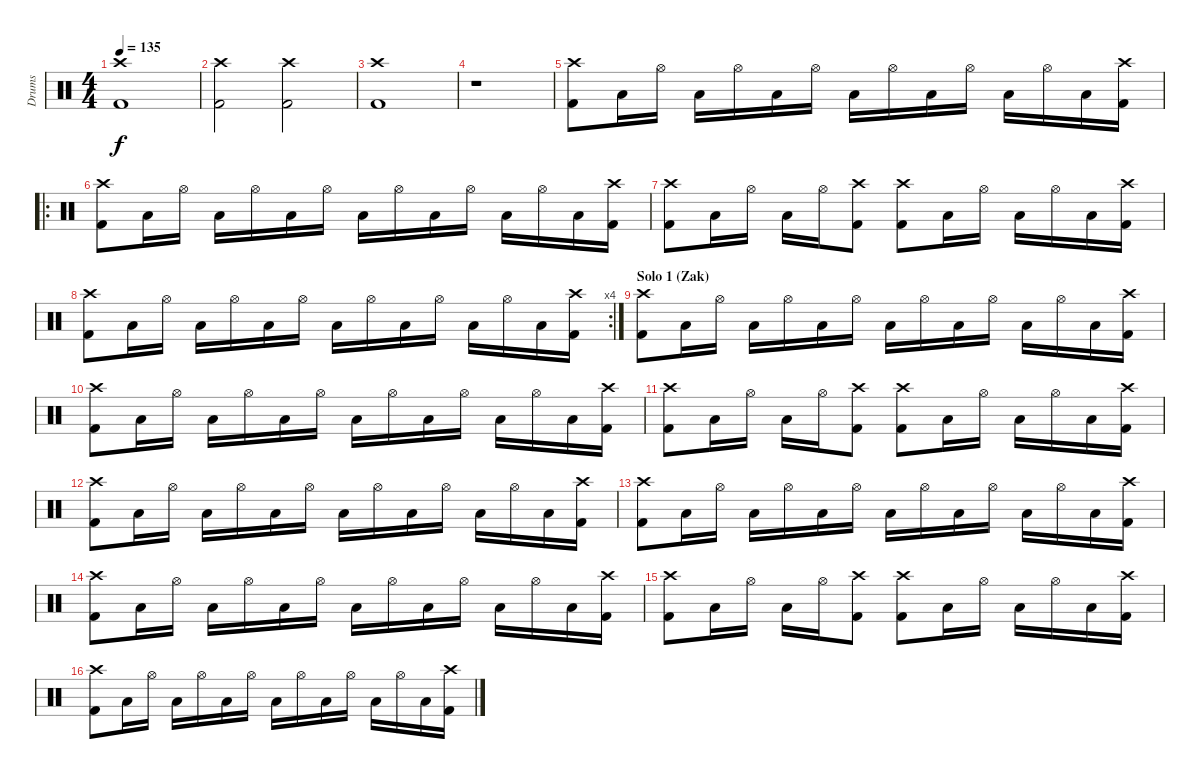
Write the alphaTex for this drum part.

\track ("Drums" "Drums") {instrument percussion}
\staff {score}
\articulation defaults
\ts (4 4)
\tempo 135
\clef neutral
\ks c
("Crash high (hit)" "Kick (hit) 2").1{dy f} |
("Crash high (hit)" "Kick (hit) 2").2 ("Crash high (hit)" "Kick (hit) 2").2 |
("Crash high (hit)" "Kick (hit) 2").1 |
r.1 |
("Crash high (hit)" "Kick (hit) 2").8 "Low Tom (hit)".16 "Hi-Hat (open)".16 "Low Tom (hit)".16 "Hi-Hat (open)".16 "Low Tom (hit)".16 "Hi-Hat (open)".16 "Low Tom (hit)".16 "Hi-Hat (open)".16 "Low Tom (hit)".16 "Hi-Hat (open)".16 "Low Tom (hit)".16 "Hi-Hat (open)".16 "Low Tom (hit)".16 ("Crash high (hit)" "Kick (hit) 2").16 |
\ro
("Crash high (hit)" "Kick (hit) 2").8 "Low Tom (hit)".16 "Hi-Hat (open)".16 "Low Tom (hit)".16 "Hi-Hat (open)".16 "Low Tom (hit)".16 "Hi-Hat (open)".16 "Low Tom (hit)".16 "Hi-Hat (open)".16 "Low Tom (hit)".16 "Hi-Hat (open)".16 "Low Tom (hit)".16 "Hi-Hat (open)".16 "Low Tom (hit)".16 ("Crash high (hit)" "Kick (hit) 2").16 |
("Kick (hit) 2" "Crash high (hit)").8 "Low Tom (hit)".16 "Hi-Hat (open)".16 "Low Tom (hit)".16 "Hi-Hat (open)".16 ("Kick (hit) 2" "Crash high (hit)").8 ("Kick (hit) 2" "Crash high (hit)").8 "Low Tom (hit)".16 "Hi-Hat (open)".16 "Low Tom (hit)".16 "Hi-Hat (open)".16 "Low Tom (hit)".16 ("Crash high (hit)" "Kick (hit) 2").16 |
\rc 4
("Crash high (hit)" "Kick (hit) 2").8 "Low Tom (hit)".16 "Hi-Hat (open)".16 "Low Tom (hit)".16 "Hi-Hat (open)".16 "Low Tom (hit)".16 "Hi-Hat (open)".16 "Low Tom (hit)".16 "Hi-Hat (open)".16 "Low Tom (hit)".16 "Hi-Hat (open)".16 "Low Tom (hit)".16 "Hi-Hat (open)".16 "Low Tom (hit)".16 ("Kick (hit) 2" "Crash high (hit)").16 |
\section ("" "Solo 1 (Zak)")
("Crash high (hit)" "Kick (hit) 2").8 "Low Tom (hit)".16 "Hi-Hat (open)".16 "Low Tom (hit)".16 "Hi-Hat (open)".16 "Low Tom (hit)".16 "Hi-Hat (open)".16 "Low Tom (hit)".16 "Hi-Hat (open)".16 "Low Tom (hit)".16 "Hi-Hat (open)".16 "Low Tom (hit)".16 "Hi-Hat (open)".16 "Low Tom (hit)".16 ("Crash high (hit)" "Kick (hit) 2").16 |
("Crash high (hit)" "Kick (hit) 2").8 "Low Tom (hit)".16 "Hi-Hat (open)".16 "Low Tom (hit)".16 "Hi-Hat (open)".16 "Low Tom (hit)".16 "Hi-Hat (open)".16 "Low Tom (hit)".16 "Hi-Hat (open)".16 "Low Tom (hit)".16 "Hi-Hat (open)".16 "Low Tom (hit)".16 "Hi-Hat (open)".16 "Low Tom (hit)".16 ("Crash high (hit)" "Kick (hit) 2").16 |
("Kick (hit) 2" "Crash high (hit)").8 "Low Tom (hit)".16 "Hi-Hat (open)".16 "Low Tom (hit)".16 "Hi-Hat (open)".16 ("Kick (hit) 2" "Crash high (hit)").8 ("Kick (hit) 2" "Crash high (hit)").8 "Low Tom (hit)".16 "Hi-Hat (open)".16 "Low Tom (hit)".16 "Hi-Hat (open)".16 "Low Tom (hit)".16 ("Crash high (hit)" "Kick (hit) 2").16 |
("Crash high (hit)" "Kick (hit) 2").8 "Low Tom (hit)".16 "Hi-Hat (open)".16 "Low Tom (hit)".16 "Hi-Hat (open)".16 "Low Tom (hit)".16 "Hi-Hat (open)".16 "Low Tom (hit)".16 "Hi-Hat (open)".16 "Low Tom (hit)".16 "Hi-Hat (open)".16 "Low Tom (hit)".16 "Hi-Hat (open)".16 "Low Tom (hit)".16 ("Crash high (hit)" "Kick (hit) 2").16 |
("Crash high (hit)" "Kick (hit) 2").8 "Low Tom (hit)".16 "Hi-Hat (open)".16 "Low Tom (hit)".16 "Hi-Hat (open)".16 "Low Tom (hit)".16 "Hi-Hat (open)".16 "Low Tom (hit)".16 "Hi-Hat (open)".16 "Low Tom (hit)".16 "Hi-Hat (open)".16 "Low Tom (hit)".16 "Hi-Hat (open)".16 "Low Tom (hit)".16 ("Crash high (hit)" "Kick (hit) 2").16 |
("Crash high (hit)" "Kick (hit) 2").8 "Low Tom (hit)".16 "Hi-Hat (open)".16 "Low Tom (hit)".16 "Hi-Hat (open)".16 "Low Tom (hit)".16 "Hi-Hat (open)".16 "Low Tom (hit)".16 "Hi-Hat (open)".16 "Low Tom (hit)".16 "Hi-Hat (open)".16 "Low Tom (hit)".16 "Hi-Hat (open)".16 "Low Tom (hit)".16 ("Crash high (hit)" "Kick (hit) 2").16 |
("Kick (hit) 2" "Crash high (hit)").8 "Low Tom (hit)".16 "Hi-Hat (open)".16 "Low Tom (hit)".16 "Hi-Hat (open)".16 ("Kick (hit) 2" "Crash high (hit)").8 ("Kick (hit) 2" "Crash high (hit)").8 "Low Tom (hit)".16 "Hi-Hat (open)".16 "Low Tom (hit)".16 "Hi-Hat (open)".16 "Low Tom (hit)".16 ("Crash high (hit)" "Kick (hit) 2").16 |
("Crash high (hit)" "Kick (hit) 2").8 "Low Tom (hit)".16 "Hi-Hat (open)".16 "Low Tom (hit)".16 "Hi-Hat (open)".16 "Low Tom (hit)".16 "Hi-Hat (open)".16 "Low Tom (hit)".16 "Hi-Hat (open)".16 "Low Tom (hit)".16 "Hi-Hat (open)".16 "Low Tom (hit)".16 "Hi-Hat (open)".16 "Low Tom (hit)".16 ("Crash high (hit)" "Kick (hit) 2").16
